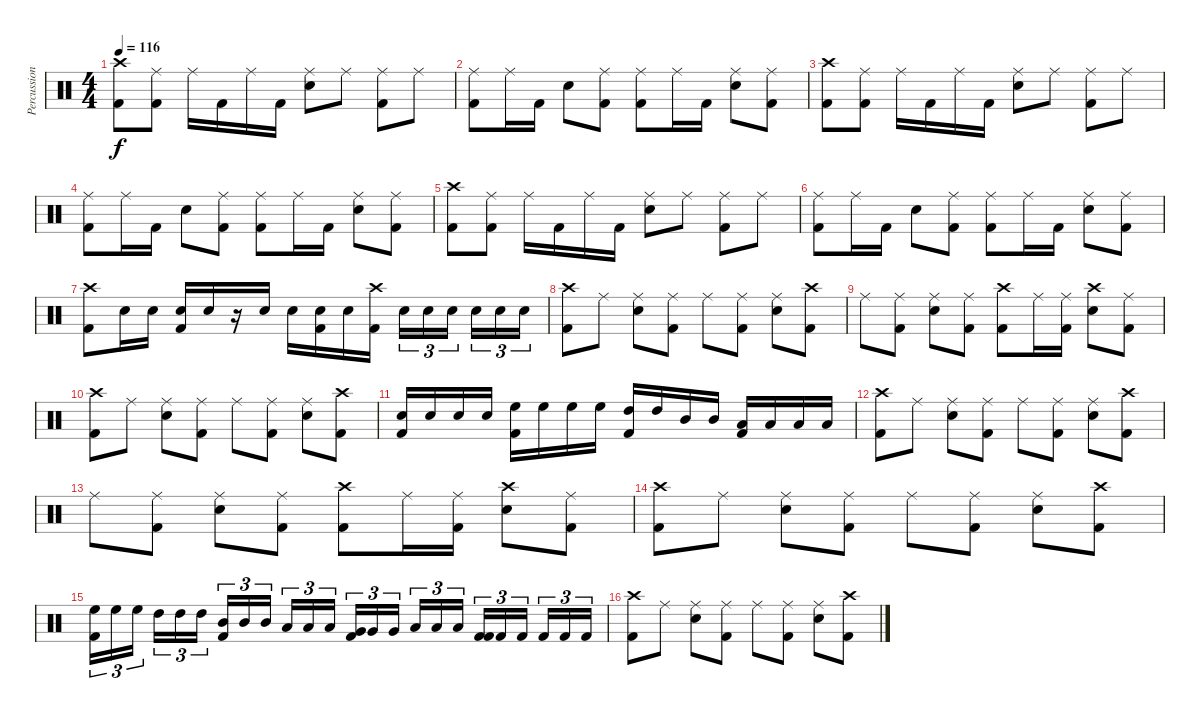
\track ("Percussion" "Percussion") {instrument percussion}
\staff {score}
\articulation defaults
\ts (4 4)
\tempo 116
\clef neutral
\ks c
("Crash high (hit)" "Kick (hit) 2").8{dy f} ("Ride (middle)" "Kick (hit) 2").8 "Ride (middle)".16 "Kick (hit) 2".16 "Ride (middle)".16 "Kick (hit) 2".16 ("Ride (middle)" "Snare (hit) 2").8 "Ride (middle)".8 ("Ride (middle)" "Kick (hit) 2").8 "Ride (middle)".8 |
("Ride (middle)" "Kick (hit) 2").8 "Ride (middle)".16 "Kick (hit) 2".16 "Snare (hit) 2".8 ("Ride (middle)" "Kick (hit) 2").8 ("Ride (middle)" "Kick (hit) 2").8 "Ride (middle)".16 "Kick (hit) 2".16 ("Ride (middle)" "Snare (hit) 2").8 ("Ride (middle)" "Kick (hit) 2").8 |
("Crash high (hit)" "Kick (hit) 2").8 ("Ride (middle)" "Kick (hit) 2").8 "Ride (middle)".16 "Kick (hit) 2".16 "Ride (middle)".16 "Kick (hit) 2".16 ("Ride (middle)" "Snare (hit) 2").8 "Ride (middle)".8 ("Ride (middle)" "Kick (hit) 2").8 "Ride (middle)".8 |
("Ride (middle)" "Kick (hit) 2").8 "Ride (middle)".16 "Kick (hit) 2".16 "Snare (hit) 2".8 ("Ride (middle)" "Kick (hit) 2").8 ("Ride (middle)" "Kick (hit) 2").8 "Ride (middle)".16 "Kick (hit) 2".16 ("Ride (middle)" "Snare (hit) 2").8 ("Ride (middle)" "Kick (hit) 2").8 |
("Crash high (hit)" "Kick (hit) 2").8 ("Ride (middle)" "Kick (hit) 2").8 "Ride (middle)".16 "Kick (hit) 2".16 "Ride (middle)".16 "Kick (hit) 2".16 ("Ride (middle)" "Snare (hit) 2").8 "Ride (middle)".8 ("Ride (middle)" "Kick (hit) 2").8 "Ride (middle)".8 |
("Ride (middle)" "Kick (hit) 2").8 "Ride (middle)".16 "Kick (hit) 2".16 "Snare (hit) 2".8 ("Ride (middle)" "Kick (hit) 2").8 ("Ride (middle)" "Kick (hit) 2").8 "Ride (middle)".16 "Kick (hit) 2".16 ("Ride (middle)" "Snare (hit) 2").8 ("Ride (middle)" "Kick (hit) 2").8 |
("Crash high (hit)" "Kick (hit) 2").8 "Snare (hit) 2".16 "Snare (hit) 2".16 ("Snare (hit) 2" "Kick (hit) 2").16 "Snare (hit) 2".16 r.16 "Snare (hit) 2".16 "Snare (hit) 2".16 ("Snare (hit) 2" "Kick (hit) 2").16 "Snare (hit) 2".16 ("Crash high (hit)" "Kick (hit) 2").16 "Snare (hit) 2".16{tu (3 2)} "Snare (hit) 2".16{tu (3 2)} "Snare (hit) 2".16{tu (3 2)} "Snare (hit) 2".16{tu (3 2)} "Snare (hit) 2".16{tu (3 2)} "Snare (hit) 2".16{tu (3 2)} |
("Crash high (hit)" "Kick (hit) 2").8 "Ride (middle)".8 ("Ride (middle)" "Snare (hit) 2").8 ("Ride (middle)" "Kick (hit) 2").8 "Ride (middle)".8 ("Ride (middle)" "Kick (hit) 2").8 ("Ride (middle)" "Snare (hit) 2").8 ("Crash high (hit)" "Kick (hit) 2").8 |
"Ride (middle)".8 ("Ride (middle)" "Kick (hit) 2").8 ("Ride (middle)" "Snare (hit) 2").8 ("Ride (middle)" "Kick (hit) 2").8 ("Crash high (hit)" "Kick (hit) 2").8 "Ride (middle)".16 ("Ride (middle)" "Kick (hit) 2").16 ("Crash high (hit)" "Snare (hit) 2").8 ("Ride (middle)" "Kick (hit) 2").8 |
("Crash high (hit)" "Kick (hit) 2").8 "Ride (middle)".8 ("Ride (middle)" "Snare (hit) 2").8 ("Ride (middle)" "Kick (hit) 2").8 "Ride (middle)".8 ("Ride (middle)" "Kick (hit) 2").8 ("Ride (middle)" "Snare (hit) 2").8 ("Crash high (hit)" "Kick (hit) 2").8 |
("Snare (hit) 2" "Kick (hit) 2").16 "Snare (hit) 2".16 "Snare (hit) 2".16 "Snare (hit) 2".16 ("High Floor Tom (hit)" "Kick (hit) 2").16 "High Floor Tom (hit)".16 "High Floor Tom (hit)".16 "High Floor Tom (hit)".16 ("High Tom (hit)" "Kick (hit) 2").16 "High Tom (hit)".16 "Mid Tom (hit)".16 "Mid Tom (hit)".16 ("Low Tom (hit)" "Kick (hit) 2").16 "Low Tom (hit)".16 "Low Tom (hit)".16 "Low Tom (hit)".16 |
("Crash high (hit)" "Kick (hit) 2").8 "Ride (middle)".8 ("Ride (middle)" "Snare (hit) 2").8 ("Ride (middle)" "Kick (hit) 2").8 "Ride (middle)".8 ("Ride (middle)" "Kick (hit) 2").8 ("Ride (middle)" "Snare (hit) 2").8 ("Crash high (hit)" "Kick (hit) 2").8 |
"Ride (middle)".8 ("Ride (middle)" "Kick (hit) 2").8 ("Ride (middle)" "Snare (hit) 2").8 ("Ride (middle)" "Kick (hit) 2").8 ("Crash high (hit)" "Kick (hit) 2").8 "Ride (middle)".16 ("Ride (middle)" "Kick (hit) 2").16 ("Crash high (hit)" "Snare (hit) 2").8 ("Ride (middle)" "Kick (hit) 2").8 |
("Crash high (hit)" "Kick (hit) 2").8 "Ride (middle)".8 ("Ride (middle)" "Snare (hit) 2").8 ("Ride (middle)" "Kick (hit) 2").8 "Ride (middle)".8 ("Ride (middle)" "Kick (hit) 2").8 ("Ride (middle)" "Snare (hit) 2").8 ("Crash high (hit)" "Kick (hit) 2").8 |
("High Floor Tom (hit)" "Kick (hit) 2").16{tu (3 2)} "High Floor Tom (hit)".16{tu (3 2)} "High Floor Tom (hit)".16{tu (3 2)} "High Tom (hit)".16{tu (3 2)} "High Tom (hit)".16{tu (3 2)} "High Tom (hit)".16{tu (3 2)} ("Mid Tom (hit)" "Kick (hit) 2").16{tu (3 2)} "Mid Tom (hit)".16{tu (3 2)} "Mid Tom (hit)".16{tu (3 2)} "Low Tom (hit)".16{tu (3 2)} "Low Tom (hit)".16{tu (3 2)} "Low Tom (hit)".16{tu (3 2)} ("Very Low Tom (hit)" "Kick (hit) 2").16{tu (3 2)} "Very Low Tom (hit)".16{tu (3 2)} "Very Low Tom (hit)".16{tu (3 2)} "Low Floor Tom (hit)".16{tu (3 2)} "Low Floor Tom (hit)".16{tu (3 2)} "Low Floor Tom (hit)".16{tu (3 2)} ("Kick (hit) 2" "Kick (hit) 2").16{tu (3 2)} "Kick (hit) 2".16{tu (3 2)} "Kick (hit) 2".16{tu (3 2)} "Kick (hit) 2".16{tu (3 2)} "Kick (hit) 2".16{tu (3 2)} "Kick (hit) 2".16{tu (3 2)} |
("Crash high (hit)" "Kick (hit) 2").8 "Ride (middle)".8 ("Ride (middle)" "Snare (hit) 2").8 ("Ride (middle)" "Kick (hit) 2").8 "Ride (middle)".8 ("Ride (middle)" "Kick (hit) 2").8 ("Ride (middle)" "Snare (hit) 2").8 ("Crash high (hit)" "Kick (hit) 2").8
